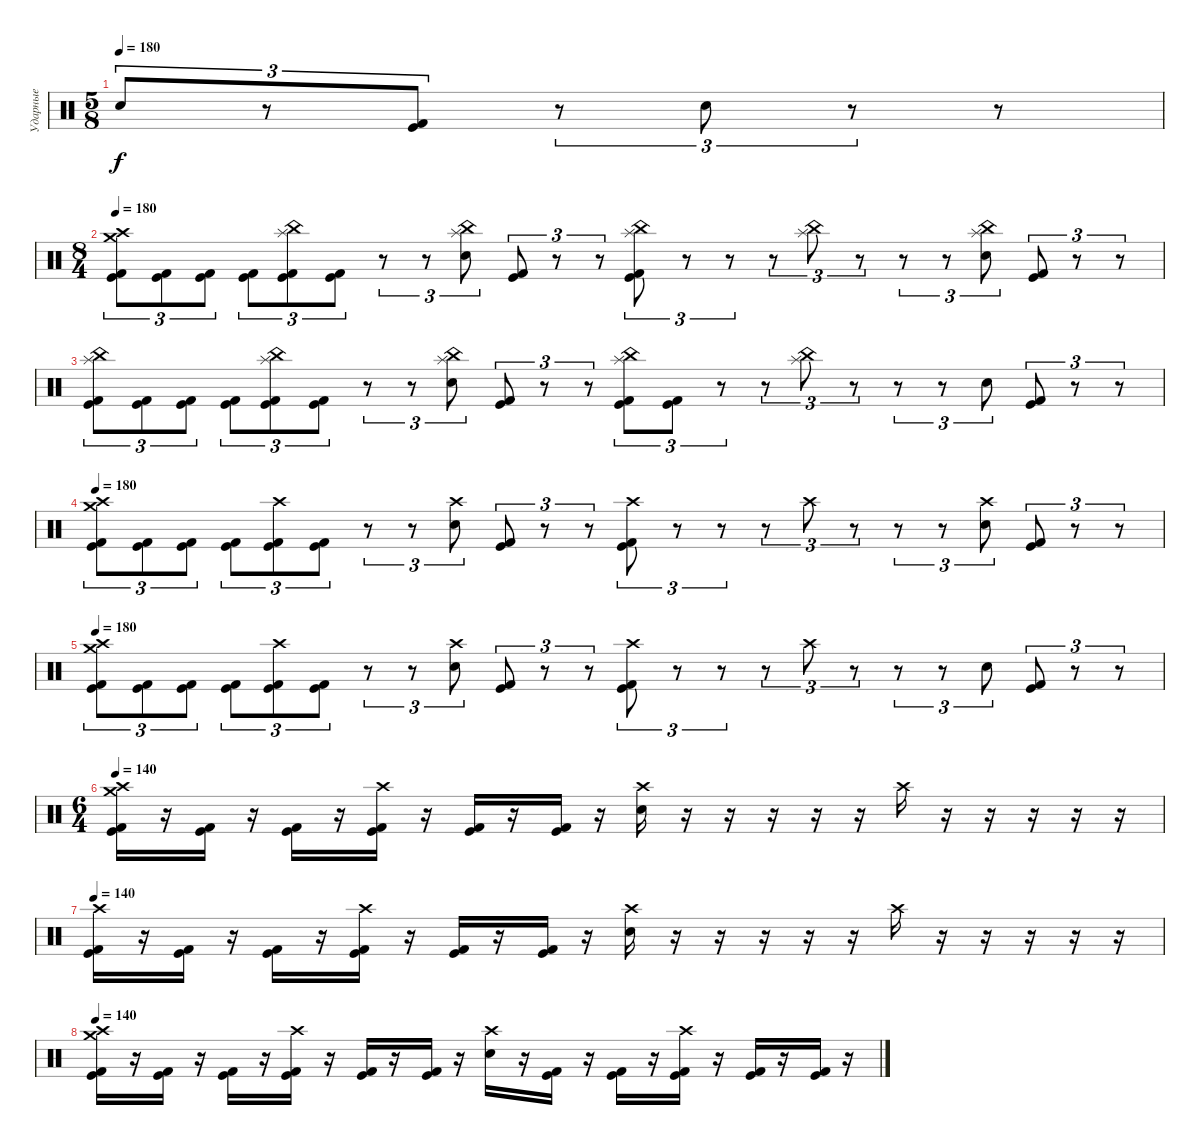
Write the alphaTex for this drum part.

\track ("Ударные" "Ударные") {instrument percussion}
\staff {score}
\articulation defaults
\ts (5 8)
\tempo 180
\clef neutral
\ks c "Electric Snare (hit)".8{tu (3 2) dy f}
r.8{tu (3 2)} ("Kick (hit)" "Kick (hit) 2").8{tu (3 2)} r.8{tu (3 2)} "Electric Snare (hit)".8{tu (3 2)} r.8{tu (3 2)} r.8 |
\ts (8 4)
\tempo 180
("Crash medium (hit)" "Crash high (hit)" "Kick (hit)" "Kick (hit) 2").8{tu (3 2)} ("Kick (hit)" "Kick (hit) 2").8{tu (3 2)} ("Kick (hit)" "Kick (hit) 2").8{tu (3 2)} ("Kick (hit)" "Kick (hit) 2").8{tu (3 2)} ("Splash (hit)" "China (hit)" "Kick (hit)" "Kick (hit) 2").8{tu (3 2)} ("Kick (hit)" "Kick (hit) 2").8{tu (3 2)} r.8{tu (3 2)} r.8{tu (3 2)} ("Splash (hit)" "China (hit)" "Electric Snare (hit)").8{tu (3 2)} ("Kick (hit)" "Kick (hit) 2").8{tu (3 2)} r.8{tu (3 2)} r.8{tu (3 2)} ("Splash (hit)" "China (hit)" "Kick (hit)" "Kick (hit) 2").8{tu (3 2)} r.8{tu (3 2)} r.8{tu (3 2)} r.8{tu (3 2)} ("Splash (hit)" "China (hit)").8{tu (3 2)} r.8{tu (3 2)} r.8{tu (3 2)} r.8{tu (3 2)} ("Splash (hit)" "China (hit)" "Electric Snare (hit)").8{tu (3 2)} ("Kick (hit)" "Kick (hit) 2").8{tu (3 2)} r.8{tu (3 2)} r.8{tu (3 2)} |
("Splash (hit)" "China (hit)" "Kick (hit)" "Kick (hit) 2").8{tu (3 2)} ("Kick (hit)" "Kick (hit) 2").8{tu (3 2)} ("Kick (hit)" "Kick (hit) 2").8{tu (3 2)} ("Kick (hit)" "Kick (hit) 2").8{tu (3 2)} ("Splash (hit)" "China (hit)" "Kick (hit)" "Kick (hit) 2").8{tu (3 2)} ("Kick (hit)" "Kick (hit) 2").8{tu (3 2)} r.8{tu (3 2)} r.8{tu (3 2)} ("Splash (hit)" "China (hit)" "Electric Snare (hit)").8{tu (3 2)} ("Kick (hit)" "Kick (hit) 2").8{tu (3 2)} r.8{tu (3 2)} r.8{tu (3 2)} ("Splash (hit)" "China (hit)" "Kick (hit)" "Kick (hit) 2").8{tu (3 2)} ("Kick (hit)" "Kick (hit) 2").8{tu (3 2)} r.8{tu (3 2)} r.8{tu (3 2)} ("Splash (hit)" "China (hit)").8{tu (3 2)} r.8{tu (3 2)} r.8{tu (3 2)} r.8{tu (3 2)} "Electric Snare (hit)".8{tu (3 2)} ("Kick (hit)" "Kick (hit) 2").8{tu (3 2)} r.8{tu (3 2)} r.8{tu (3 2)} |
\tempo 180
("Crash medium (hit)" "Crash high (hit)" "Kick (hit)" "Kick (hit) 2").8{tu (3 2)} ("Kick (hit)" "Kick (hit) 2").8{tu (3 2)} ("Kick (hit)" "Kick (hit) 2").8{tu (3 2)} ("Kick (hit)" "Kick (hit) 2").8{tu (3 2)} ("Crash high (hit)" "Kick (hit)" "Kick (hit) 2").8{tu (3 2)} ("Kick (hit)" "Kick (hit) 2").8{tu (3 2)} r.8{tu (3 2)} r.8{tu (3 2)} ("Crash high (hit)" "Electric Snare (hit)").8{tu (3 2)} ("Kick (hit)" "Kick (hit) 2").8{tu (3 2)} r.8{tu (3 2)} r.8{tu (3 2)} ("Crash high (hit)" "Kick (hit)" "Kick (hit) 2").8{tu (3 2)} r.8{tu (3 2)} r.8{tu (3 2)} r.8{tu (3 2)} "Crash high (hit)".8{tu (3 2)} r.8{tu (3 2)} r.8{tu (3 2)} r.8{tu (3 2)} ("Crash high (hit)" "Electric Snare (hit)").8{tu (3 2)} ("Kick (hit)" "Kick (hit) 2").8{tu (3 2)} r.8{tu (3 2)} r.8{tu (3 2)} |
\tempo 180
("Crash medium (hit)" "Crash high (hit)" "Kick (hit)" "Kick (hit) 2").8{tu (3 2)} ("Kick (hit)" "Kick (hit) 2").8{tu (3 2)} ("Kick (hit)" "Kick (hit) 2").8{tu (3 2)} ("Kick (hit)" "Kick (hit) 2").8{tu (3 2)} ("Crash high (hit)" "Kick (hit)" "Kick (hit) 2").8{tu (3 2)} ("Kick (hit)" "Kick (hit) 2").8{tu (3 2)} r.8{tu (3 2)} r.8{tu (3 2)} ("Crash high (hit)" "Electric Snare (hit)").8{tu (3 2)} ("Kick (hit)" "Kick (hit) 2").8{tu (3 2)} r.8{tu (3 2)} r.8{tu (3 2)} ("Crash high (hit)" "Kick (hit)" "Kick (hit) 2").8{tu (3 2)} r.8{tu (3 2)} r.8{tu (3 2)} r.8{tu (3 2)} "Crash high (hit)".8{tu (3 2)} r.8{tu (3 2)} r.8{tu (3 2)} r.8{tu (3 2)} "Electric Snare (hit)".8{tu (3 2)} ("Kick (hit)" "Kick (hit) 2").8{tu (3 2)} r.8{tu (3 2)} r.8{tu (3 2)} |
\ts (6 4)
\section ("" "")
\tempo 140
("Crash medium (hit)" "Crash high (hit)" "Kick (hit)" "Kick (hit) 2").16 r.16 ("Kick (hit)" "Kick (hit) 2").16 r.16 ("Kick (hit)" "Kick (hit) 2").16 r.16 ("Crash high (hit)" "Kick (hit)" "Kick (hit) 2").16 r.16 ("Kick (hit)" "Kick (hit) 2").16 r.16 ("Kick (hit)" "Kick (hit) 2").16 r.16 ("Crash high (hit)" "Electric Snare (hit)").16 r.16 r.16 r.16 r.16 r.16 "Crash high (hit)".16 r.16 r.16 r.16 r.16 r.16 |
\tempo 140
("Crash high (hit)" "Kick (hit)" "Kick (hit) 2").16 r.16 ("Kick (hit)" "Kick (hit) 2").16 r.16 ("Kick (hit)" "Kick (hit) 2").16 r.16 ("Crash high (hit)" "Kick (hit)" "Kick (hit) 2").16 r.16 ("Kick (hit)" "Kick (hit) 2").16 r.16 ("Kick (hit)" "Kick (hit) 2").16 r.16 ("Crash high (hit)" "Electric Snare (hit)").16 r.16 r.16 r.16 r.16 r.16 "Crash high (hit)".16 r.16 r.16 r.16 r.16 r.16 |
\tempo 140
("Crash medium (hit)" "Crash high (hit)" "Kick (hit)" "Kick (hit) 2").16 r.16 ("Kick (hit)" "Kick (hit) 2").16 r.16 ("Kick (hit)" "Kick (hit) 2").16 r.16 ("Crash high (hit)" "Kick (hit)" "Kick (hit) 2").16 r.16 ("Kick (hit)" "Kick (hit) 2").16 r.16 ("Kick (hit)" "Kick (hit) 2").16 r.16 ("Crash high (hit)" "Electric Snare (hit)").16 r.16 ("Kick (hit)" "Kick (hit) 2").16 r.16 ("Kick (hit)" "Kick (hit) 2").16 r.16 ("Crash high (hit)" "Kick (hit)" "Kick (hit) 2").16 r.16 ("Kick (hit)" "Kick (hit) 2").16 r.16 ("Kick (hit)" "Kick (hit) 2").16 r.16
